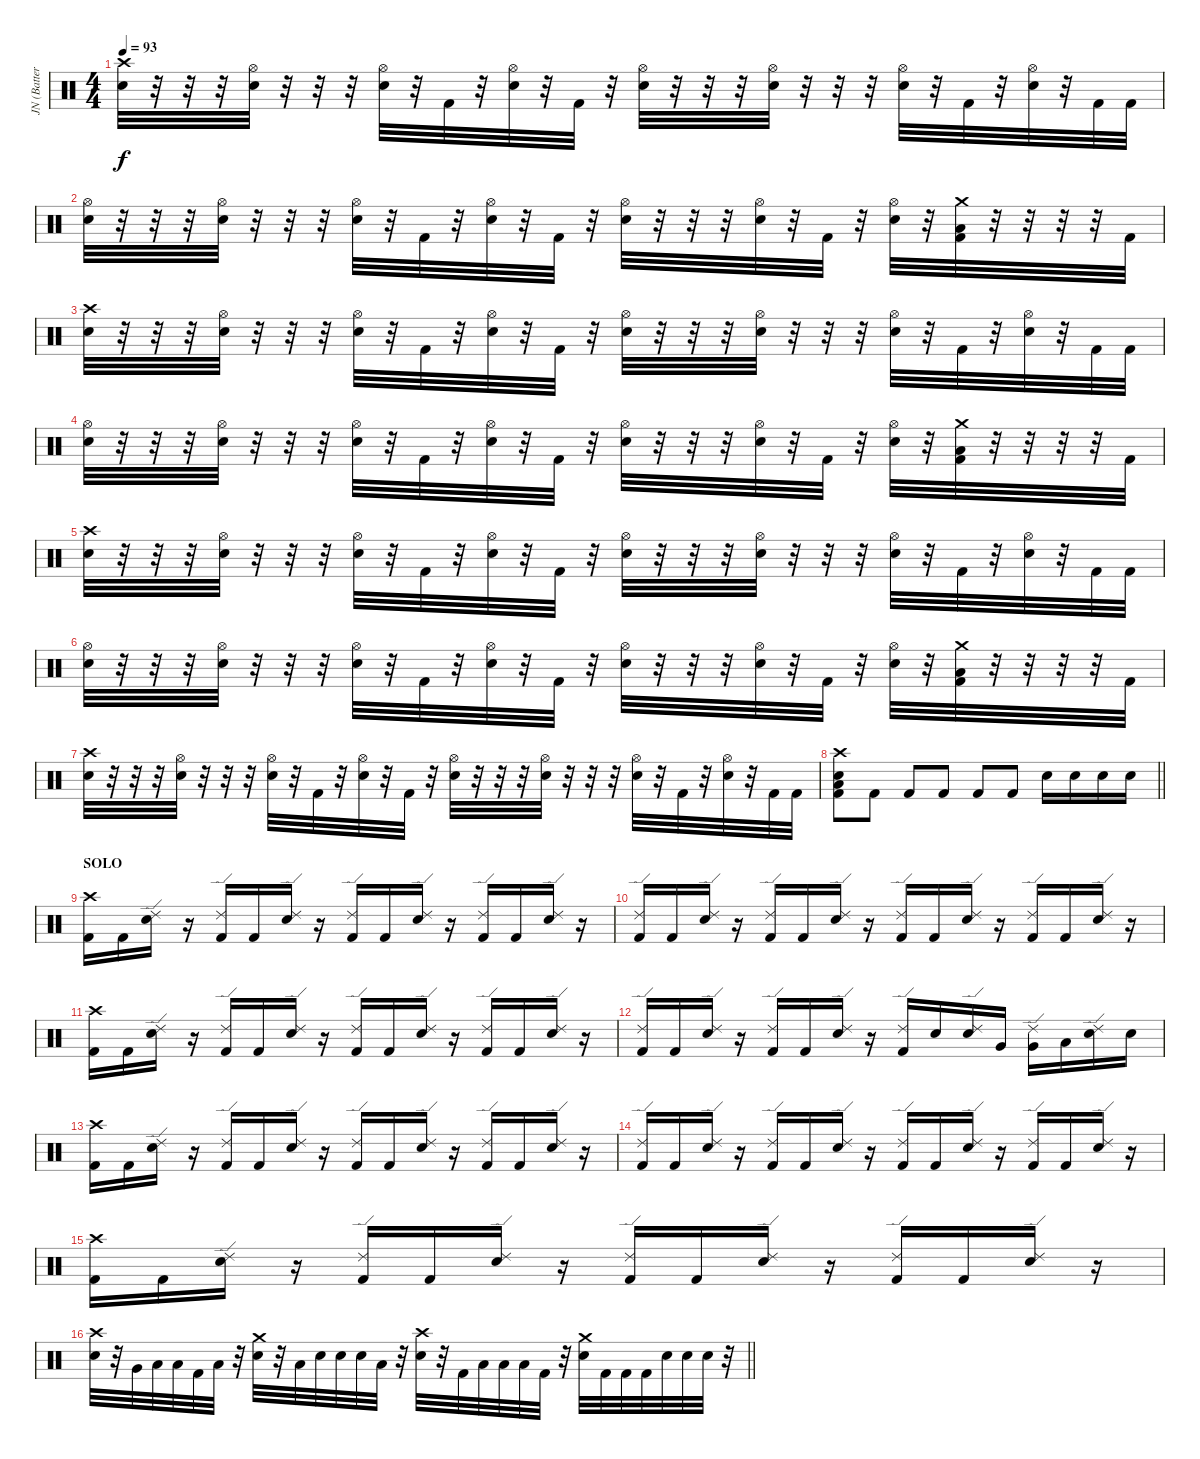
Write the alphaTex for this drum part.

\track ("JN (Batterie)" "JN (Batter") {instrument percussion}
\staff {score}
\articulation defaults
\ts (4 4)
\tempo 93
\clef neutral
\ks c
("Crash high (hit)" "Electric Snare (hit)").32{dy f} r.32 r.32 r.32 ("Hi-Hat (open)" "Electric Snare (hit)").32 r.32 r.32 r.32 ("Hi-Hat (open)" "Electric Snare (hit)").32 r.32 "Kick (hit) 2".32 r.32 ("Hi-Hat (open)" "Electric Snare (hit)").32 r.32 "Kick (hit) 2".32 r.32 ("Hi-Hat (open)" "Electric Snare (hit)").32 r.32 r.32 r.32 ("Hi-Hat (open)" "Electric Snare (hit)").32 r.32 r.32 r.32 ("Hi-Hat (open)" "Electric Snare (hit)").32 r.32 "Kick (hit) 2".32 r.32 ("Hi-Hat (open)" "Electric Snare (hit)").32 r.32 "Kick (hit) 2".32 "Kick (hit) 2".32 |
("Hi-Hat (open)" "Electric Snare (hit)").32 r.32 r.32 r.32 ("Hi-Hat (open)" "Electric Snare (hit)").32 r.32 r.32 r.32 ("Hi-Hat (open)" "Electric Snare (hit)").32 r.32 "Kick (hit) 2".32 r.32 ("Hi-Hat (open)" "Electric Snare (hit)").32 r.32 "Kick (hit) 2".32 r.32 ("Hi-Hat (open)" "Electric Snare (hit)").32 r.32 r.32 r.32 ("Hi-Hat (open)" "Electric Snare (hit)").32 r.32 "Kick (hit) 2".32 r.32 ("Hi-Hat (open)" "Electric Snare (hit)").32 r.32 ("Crash medium (hit)" "Low Tom (hit)" "Kick (hit) 2").32 r.32 r.32 r.32 r.32 "Kick (hit) 2".32 |
("Crash high (hit)" "Electric Snare (hit)").32 r.32 r.32 r.32 ("Hi-Hat (open)" "Electric Snare (hit)").32 r.32 r.32 r.32 ("Hi-Hat (open)" "Electric Snare (hit)").32 r.32 "Kick (hit) 2".32 r.32 ("Hi-Hat (open)" "Electric Snare (hit)").32 r.32 "Kick (hit) 2".32 r.32 ("Hi-Hat (open)" "Electric Snare (hit)").32 r.32 r.32 r.32 ("Hi-Hat (open)" "Electric Snare (hit)").32 r.32 r.32 r.32 ("Hi-Hat (open)" "Electric Snare (hit)").32 r.32 "Kick (hit) 2".32 r.32 ("Hi-Hat (open)" "Electric Snare (hit)").32 r.32 "Kick (hit) 2".32 "Kick (hit) 2".32 |
("Hi-Hat (open)" "Electric Snare (hit)").32 r.32 r.32 r.32 ("Hi-Hat (open)" "Electric Snare (hit)").32 r.32 r.32 r.32 ("Hi-Hat (open)" "Electric Snare (hit)").32 r.32 "Kick (hit) 2".32 r.32 ("Hi-Hat (open)" "Electric Snare (hit)").32 r.32 "Kick (hit) 2".32 r.32 ("Hi-Hat (open)" "Electric Snare (hit)").32 r.32 r.32 r.32 ("Hi-Hat (open)" "Electric Snare (hit)").32 r.32 "Kick (hit) 2".32 r.32 ("Hi-Hat (open)" "Electric Snare (hit)").32 r.32 ("Crash medium (hit)" "Low Tom (hit)" "Kick (hit) 2").32 r.32 r.32 r.32 r.32 "Kick (hit) 2".32 |
("Crash high (hit)" "Electric Snare (hit)").32 r.32 r.32 r.32 ("Hi-Hat (open)" "Electric Snare (hit)").32 r.32 r.32 r.32 ("Hi-Hat (open)" "Electric Snare (hit)").32 r.32 "Kick (hit) 2".32 r.32 ("Hi-Hat (open)" "Electric Snare (hit)").32 r.32 "Kick (hit) 2".32 r.32 ("Hi-Hat (open)" "Electric Snare (hit)").32 r.32 r.32 r.32 ("Hi-Hat (open)" "Electric Snare (hit)").32 r.32 r.32 r.32 ("Hi-Hat (open)" "Electric Snare (hit)").32 r.32 "Kick (hit) 2".32 r.32 ("Hi-Hat (open)" "Electric Snare (hit)").32 r.32 "Kick (hit) 2".32 "Kick (hit) 2".32 |
("Hi-Hat (open)" "Electric Snare (hit)").32 r.32 r.32 r.32 ("Hi-Hat (open)" "Electric Snare (hit)").32 r.32 r.32 r.32 ("Hi-Hat (open)" "Electric Snare (hit)").32 r.32 "Kick (hit) 2".32 r.32 ("Hi-Hat (open)" "Electric Snare (hit)").32 r.32 "Kick (hit) 2".32 r.32 ("Hi-Hat (open)" "Electric Snare (hit)").32 r.32 r.32 r.32 ("Hi-Hat (open)" "Electric Snare (hit)").32 r.32 "Kick (hit) 2".32 r.32 ("Hi-Hat (open)" "Electric Snare (hit)").32 r.32 ("Crash medium (hit)" "Low Tom (hit)" "Kick (hit) 2").32 r.32 r.32 r.32 r.32 "Kick (hit) 2".32 |
("Crash high (hit)" "Electric Snare (hit)").32 r.32 r.32 r.32 ("Hi-Hat (open)" "Electric Snare (hit)").32 r.32 r.32 r.32 ("Hi-Hat (open)" "Electric Snare (hit)").32 r.32 "Kick (hit) 2".32 r.32 ("Hi-Hat (open)" "Electric Snare (hit)").32 r.32 "Kick (hit) 2".32 r.32 ("Hi-Hat (open)" "Electric Snare (hit)").32 r.32 r.32 r.32 ("Hi-Hat (open)" "Electric Snare (hit)").32 r.32 r.32 r.32 ("Hi-Hat (open)" "Electric Snare (hit)").32 r.32 "Kick (hit) 2".32 r.32 ("Hi-Hat (open)" "Electric Snare (hit)").32 r.32 "Kick (hit) 2".32 "Kick (hit) 2".32 |
\barLineRight lightlight
("Crash high (hit)" "Low Tom (hit)" "Electric Snare (hit)" "Kick (hit) 2").8 "Kick (hit) 2".8 "Kick (hit) 2".8 "Kick (hit) 2".8 "Kick (hit) 2".8 "Kick (hit) 2".8 "Electric Snare (hit)".16 "Electric Snare (hit)".16 "Electric Snare (hit)".16 "Electric Snare (hit)".16 |
\section ("" "SOLO")
("Crash high (hit)" "Kick (hit) 2").16 "Kick (hit) 2".16 ("Ride (edge) 2" "Electric Snare (hit)").16 r.16 ("Ride (edge) 2" "Kick (hit) 2").16 "Kick (hit) 2".16 ("Ride (edge) 2" "Electric Snare (hit)").16 r.16 ("Ride (edge) 2" "Kick (hit) 2").16 "Kick (hit) 2".16 ("Ride (edge) 2" "Electric Snare (hit)").16 r.16 ("Ride (edge) 2" "Kick (hit) 2").16 "Kick (hit) 2".16 ("Ride (edge) 2" "Electric Snare (hit)").16 r.16 |
("Ride (edge) 2" "Kick (hit) 2").16 "Kick (hit) 2".16 ("Ride (edge) 2" "Electric Snare (hit)").16 r.16 ("Ride (edge) 2" "Kick (hit) 2").16 "Kick (hit) 2".16 ("Ride (edge) 2" "Electric Snare (hit)").16 r.16 ("Ride (edge) 2" "Kick (hit) 2").16 "Kick (hit) 2".16 ("Ride (edge) 2" "Electric Snare (hit)").16 r.16 ("Ride (edge) 2" "Kick (hit) 2").16 "Kick (hit) 2".16 ("Ride (edge) 2" "Electric Snare (hit)").16 r.16 |
("Crash high (hit)" "Kick (hit) 2").16 "Kick (hit) 2".16 ("Ride (edge) 2" "Electric Snare (hit)").16 r.16 ("Ride (edge) 2" "Kick (hit) 2").16 "Kick (hit) 2".16 ("Ride (edge) 2" "Electric Snare (hit)").16 r.16 ("Ride (edge) 2" "Kick (hit) 2").16 "Kick (hit) 2".16 ("Ride (edge) 2" "Electric Snare (hit)").16 r.16 ("Ride (edge) 2" "Kick (hit) 2").16 "Kick (hit) 2".16 ("Ride (edge) 2" "Electric Snare (hit)").16 r.16 |
("Ride (edge) 2" "Kick (hit) 2").16 "Kick (hit) 2".16 ("Ride (edge) 2" "Electric Snare (hit)").16 r.16 ("Ride (edge) 2" "Kick (hit) 2").16 "Kick (hit) 2".16 ("Ride (edge) 2" "Electric Snare (hit)").16 r.16 ("Ride (edge) 2" "Kick (hit) 2").16 "Electric Snare (hit)".16 ("Ride (edge) 2" "Electric Snare (hit)").16 "Very Low Tom (hit)".16 ("Ride (edge) 2" "Very Low Tom (hit)").16 "Low Tom (hit)".16 ("Ride (edge) 2" "Electric Snare (hit)").16 "Electric Snare (hit)".16 |
("Crash high (hit)" "Kick (hit) 2").16 "Kick (hit) 2".16 ("Ride (edge) 2" "Electric Snare (hit)").16 r.16 ("Ride (edge) 2" "Kick (hit) 2").16 "Kick (hit) 2".16 ("Ride (edge) 2" "Electric Snare (hit)").16 r.16 ("Ride (edge) 2" "Kick (hit) 2").16 "Kick (hit) 2".16 ("Ride (edge) 2" "Electric Snare (hit)").16 r.16 ("Ride (edge) 2" "Kick (hit) 2").16 "Kick (hit) 2".16 ("Ride (edge) 2" "Electric Snare (hit)").16 r.16 |
("Ride (edge) 2" "Kick (hit) 2").16 "Kick (hit) 2".16 ("Ride (edge) 2" "Electric Snare (hit)").16 r.16 ("Ride (edge) 2" "Kick (hit) 2").16 "Kick (hit) 2".16 ("Ride (edge) 2" "Electric Snare (hit)").16 r.16 ("Ride (edge) 2" "Kick (hit) 2").16 "Kick (hit) 2".16 ("Ride (edge) 2" "Electric Snare (hit)").16 r.16 ("Ride (edge) 2" "Kick (hit) 2").16 "Kick (hit) 2".16 ("Ride (edge) 2" "Electric Snare (hit)").16 r.16 |
("Crash high (hit)" "Kick (hit) 2").16 "Kick (hit) 2".16 ("Ride (edge) 2" "Electric Snare (hit)").16 r.16 ("Ride (edge) 2" "Kick (hit) 2").16 "Kick (hit) 2".16 ("Ride (edge) 2" "Electric Snare (hit)").16 r.16 ("Ride (edge) 2" "Kick (hit) 2").16 "Kick (hit) 2".16 ("Ride (edge) 2" "Electric Snare (hit)").16 r.16 ("Ride (edge) 2" "Kick (hit) 2").16 "Kick (hit) 2".16 ("Ride (edge) 2" "Electric Snare (hit)").16 r.16 |
\barLineRight lightlight
("Crash high (hit)" "Electric Snare (hit)").32 r.32 "Very Low Tom (hit)".32 "Low Tom (hit)".32 "Low Floor Tom (hit)".32 "Kick (hit) 2".32 "Low Tom (hit)".32 r.32 ("Crash medium (hit)" "Electric Snare (hit)").32 r.32 "Low Tom (hit)".32 "Electric Snare (hit)".32 "Electric Snare (hit)".32 "Electric Snare (hit)".32 "Low Floor Tom (hit)".32 r.32 ("Crash high (hit)" "Electric Snare (hit)").32 r.32 "Kick (hit) 2".32 "Low Floor Tom (hit)".32 "Low Tom (hit)".32 "Low Floor Tom (hit)".32 "Kick (hit) 2".32 r.32 ("Crash medium (hit)" "Electric Snare (hit)").32 "Kick (hit) 2".32 "Kick (hit) 2".32 "Kick (hit) 2".32 "Electric Snare (hit)".32 "Electric Snare (hit)".32 "Electric Snare (hit)".32 r.32
